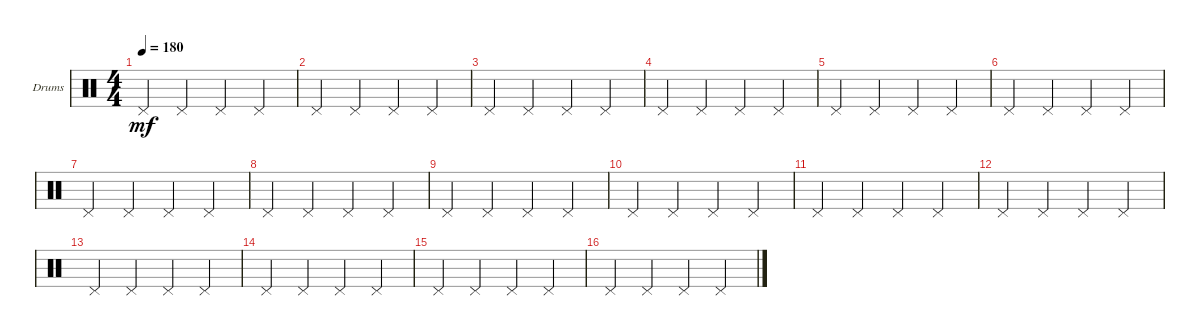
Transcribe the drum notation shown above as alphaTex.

\defaultSystemsLayout 4
\bracketExtendMode groupsimilarinstruments
\firstSystemTrackNameOrientation horizontal
\otherSystemsTrackNameOrientation horizontal
\track ("Drumkit" "Drums") {instrument percussion}
\staff {score}
\articulation defaults
\ts (4 4)
\tempo 180
\clef neutral
\scale
0.333333
\ks c "Pedal Hi-Hat (hit)".4{dy mf} "Pedal Hi-Hat (hit)".4 "Pedal Hi-Hat (hit)".4 "Pedal Hi-Hat (hit)".4
|
\scale
0.333333 "Pedal Hi-Hat (hit)".4 "Pedal Hi-Hat (hit)".4 "Pedal Hi-Hat (hit)".4 "Pedal Hi-Hat (hit)".4 |
"Pedal Hi-Hat (hit)".4 "Pedal Hi-Hat (hit)".4 "Pedal Hi-Hat (hit)".4 "Pedal Hi-Hat (hit)".4 |
\scale
0.333333 "Pedal Hi-Hat (hit)".4 "Pedal Hi-Hat (hit)".4 "Pedal Hi-Hat (hit)".4 "Pedal Hi-Hat (hit)".4 |
\scale
0.333333 "Pedal Hi-Hat (hit)".4 "Pedal Hi-Hat (hit)".4 "Pedal Hi-Hat (hit)".4 "Pedal Hi-Hat (hit)".4 |
\scale
0.333333 "Pedal Hi-Hat (hit)".4 "Pedal Hi-Hat (hit)".4 "Pedal Hi-Hat (hit)".4 "Pedal Hi-Hat (hit)".4 |
\scale
0.333333 "Pedal Hi-Hat (hit)".4 "Pedal Hi-Hat (hit)".4 "Pedal Hi-Hat (hit)".4 "Pedal Hi-Hat (hit)".4 |
\scale
0.333333 "Pedal Hi-Hat (hit)".4 "Pedal Hi-Hat (hit)".4 "Pedal Hi-Hat (hit)".4 "Pedal Hi-Hat (hit)".4 |
\scale
0.333333 "Pedal Hi-Hat (hit)".4 "Pedal Hi-Hat (hit)".4 "Pedal Hi-Hat (hit)".4 "Pedal Hi-Hat (hit)".4 |
\scale
0.333333 "Pedal Hi-Hat (hit)".4 "Pedal Hi-Hat (hit)".4 "Pedal Hi-Hat (hit)".4 "Pedal Hi-Hat (hit)".4 |
\scale
0.333333 "Pedal Hi-Hat (hit)".4 "Pedal Hi-Hat (hit)".4 "Pedal Hi-Hat (hit)".4 "Pedal Hi-Hat (hit)".4 |
\scale
0.333333 "Pedal Hi-Hat (hit)".4 "Pedal Hi-Hat (hit)".4 "Pedal Hi-Hat (hit)".4 "Pedal Hi-Hat (hit)".4 |
\scale
0.333333 "Pedal Hi-Hat (hit)".4 "Pedal Hi-Hat (hit)".4 "Pedal Hi-Hat (hit)".4 "Pedal Hi-Hat (hit)".4 |
\scale
0.333333 "Pedal Hi-Hat (hit)".4 "Pedal Hi-Hat (hit)".4 "Pedal Hi-Hat (hit)".4 "Pedal Hi-Hat (hit)".4 |
\scale
0.333333 "Pedal Hi-Hat (hit)".4 "Pedal Hi-Hat (hit)".4 "Pedal Hi-Hat (hit)".4 "Pedal Hi-Hat (hit)".4 |
\scale
0.333333 "Pedal Hi-Hat (hit)".4 "Pedal Hi-Hat (hit)".4 "Pedal Hi-Hat (hit)".4 "Pedal Hi-Hat (hit)".4
